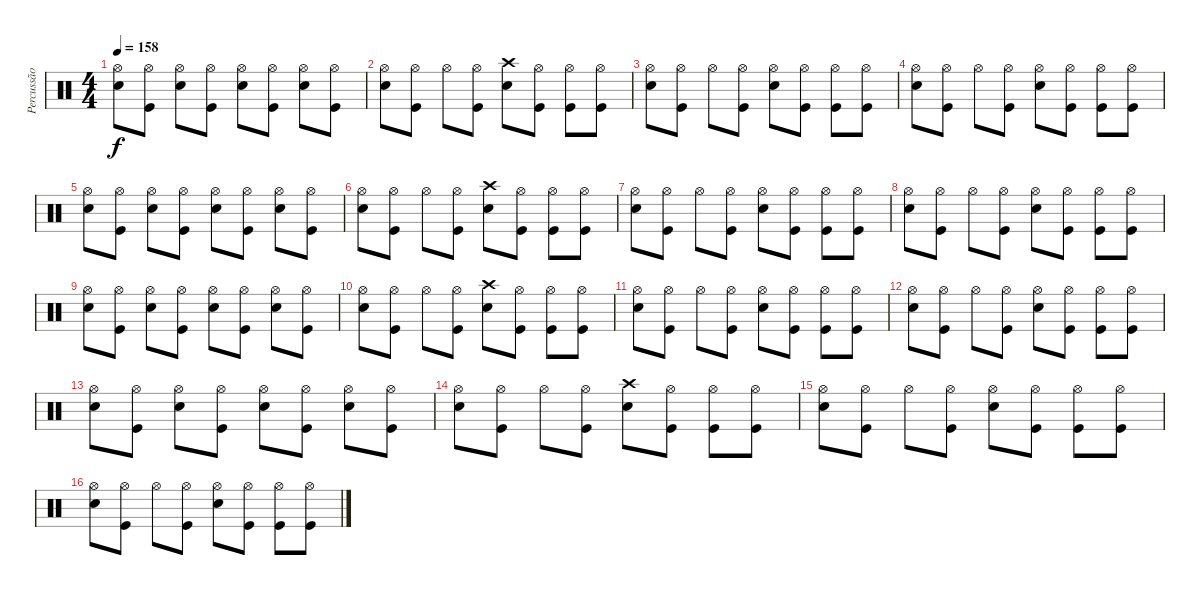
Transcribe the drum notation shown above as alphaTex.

\track ("Percussão" "Percussão") {instrument percussion}
\staff {score}
\articulation defaults
\ts (4 4)
\tempo 158
\clef neutral
\ks c
("Hi-Hat (open)" "Electric Snare (hit)").8{dy f} ("Hi-Hat (open)" "Kick (hit)").8 ("Hi-Hat (open)" "Electric Snare (hit)").8 ("Hi-Hat (open)" "Kick (hit)").8 ("Hi-Hat (open)" "Electric Snare (hit)").8 ("Hi-Hat (open)" "Kick (hit)").8 ("Hi-Hat (open)" "Electric Snare (hit)").8 ("Hi-Hat (open)" "Kick (hit)").8 |
("Hi-Hat (open)" "Electric Snare (hit)").8 ("Hi-Hat (open)" "Kick (hit)").8 "Hi-Hat (open)".8 ("Hi-Hat (open)" "Kick (hit)").8 ("Crash high (hit)" "Electric Snare (hit)").8 ("Hi-Hat (open)" "Kick (hit)").8 ("Hi-Hat (open)" "Kick (hit)").8 ("Hi-Hat (open)" "Kick (hit)").8 |
("Hi-Hat (open)" "Electric Snare (hit)").8 ("Hi-Hat (open)" "Kick (hit)").8 "Hi-Hat (open)".8 ("Hi-Hat (open)" "Kick (hit)").8 ("Hi-Hat (open)" "Electric Snare (hit)").8 ("Hi-Hat (open)" "Kick (hit)").8 ("Hi-Hat (open)" "Kick (hit)").8 ("Hi-Hat (open)" "Kick (hit)").8 |
("Hi-Hat (open)" "Electric Snare (hit)").8 ("Hi-Hat (open)" "Kick (hit)").8 "Hi-Hat (open)".8 ("Hi-Hat (open)" "Kick (hit)").8 ("Hi-Hat (open)" "Electric Snare (hit)").8 ("Hi-Hat (open)" "Kick (hit)").8 ("Hi-Hat (open)" "Kick (hit)").8 ("Hi-Hat (open)" "Kick (hit)").8 |
("Hi-Hat (open)" "Electric Snare (hit)").8 ("Hi-Hat (open)" "Kick (hit)").8 ("Hi-Hat (open)" "Electric Snare (hit)").8 ("Hi-Hat (open)" "Kick (hit)").8 ("Hi-Hat (open)" "Electric Snare (hit)").8 ("Hi-Hat (open)" "Kick (hit)").8 ("Hi-Hat (open)" "Electric Snare (hit)").8 ("Hi-Hat (open)" "Kick (hit)").8 |
("Hi-Hat (open)" "Electric Snare (hit)").8 ("Hi-Hat (open)" "Kick (hit)").8 "Hi-Hat (open)".8 ("Hi-Hat (open)" "Kick (hit)").8 ("Crash high (hit)" "Electric Snare (hit)").8 ("Hi-Hat (open)" "Kick (hit)").8 ("Hi-Hat (open)" "Kick (hit)").8 ("Hi-Hat (open)" "Kick (hit)").8 |
("Hi-Hat (open)" "Electric Snare (hit)").8 ("Hi-Hat (open)" "Kick (hit)").8 "Hi-Hat (open)".8 ("Hi-Hat (open)" "Kick (hit)").8 ("Hi-Hat (open)" "Electric Snare (hit)").8 ("Hi-Hat (open)" "Kick (hit)").8 ("Hi-Hat (open)" "Kick (hit)").8 ("Hi-Hat (open)" "Kick (hit)").8 |
("Hi-Hat (open)" "Electric Snare (hit)").8 ("Hi-Hat (open)" "Kick (hit)").8 "Hi-Hat (open)".8 ("Hi-Hat (open)" "Kick (hit)").8 ("Hi-Hat (open)" "Electric Snare (hit)").8 ("Hi-Hat (open)" "Kick (hit)").8 ("Hi-Hat (open)" "Kick (hit)").8 ("Hi-Hat (open)" "Kick (hit)").8 |
("Hi-Hat (open)" "Electric Snare (hit)").8 ("Hi-Hat (open)" "Kick (hit)").8 ("Hi-Hat (open)" "Electric Snare (hit)").8 ("Hi-Hat (open)" "Kick (hit)").8 ("Hi-Hat (open)" "Electric Snare (hit)").8 ("Hi-Hat (open)" "Kick (hit)").8 ("Hi-Hat (open)" "Electric Snare (hit)").8 ("Hi-Hat (open)" "Kick (hit)").8 |
("Hi-Hat (open)" "Electric Snare (hit)").8 ("Hi-Hat (open)" "Kick (hit)").8 "Hi-Hat (open)".8 ("Hi-Hat (open)" "Kick (hit)").8 ("Crash high (hit)" "Electric Snare (hit)").8 ("Hi-Hat (open)" "Kick (hit)").8 ("Hi-Hat (open)" "Kick (hit)").8 ("Hi-Hat (open)" "Kick (hit)").8 |
("Hi-Hat (open)" "Electric Snare (hit)").8 ("Hi-Hat (open)" "Kick (hit)").8 "Hi-Hat (open)".8 ("Hi-Hat (open)" "Kick (hit)").8 ("Hi-Hat (open)" "Electric Snare (hit)").8 ("Hi-Hat (open)" "Kick (hit)").8 ("Hi-Hat (open)" "Kick (hit)").8 ("Hi-Hat (open)" "Kick (hit)").8 |
("Hi-Hat (open)" "Electric Snare (hit)").8 ("Hi-Hat (open)" "Kick (hit)").8 "Hi-Hat (open)".8 ("Hi-Hat (open)" "Kick (hit)").8 ("Hi-Hat (open)" "Electric Snare (hit)").8 ("Hi-Hat (open)" "Kick (hit)").8 ("Hi-Hat (open)" "Kick (hit)").8 ("Hi-Hat (open)" "Kick (hit)").8 |
("Hi-Hat (open)" "Electric Snare (hit)").8 ("Hi-Hat (open)" "Kick (hit)").8 ("Hi-Hat (open)" "Electric Snare (hit)").8 ("Hi-Hat (open)" "Kick (hit)").8 ("Hi-Hat (open)" "Electric Snare (hit)").8 ("Hi-Hat (open)" "Kick (hit)").8 ("Hi-Hat (open)" "Electric Snare (hit)").8 ("Hi-Hat (open)" "Kick (hit)").8 |
("Hi-Hat (open)" "Electric Snare (hit)").8 ("Hi-Hat (open)" "Kick (hit)").8 "Hi-Hat (open)".8 ("Hi-Hat (open)" "Kick (hit)").8 ("Crash high (hit)" "Electric Snare (hit)").8 ("Hi-Hat (open)" "Kick (hit)").8 ("Hi-Hat (open)" "Kick (hit)").8 ("Hi-Hat (open)" "Kick (hit)").8 |
("Hi-Hat (open)" "Electric Snare (hit)").8 ("Hi-Hat (open)" "Kick (hit)").8 "Hi-Hat (open)".8 ("Hi-Hat (open)" "Kick (hit)").8 ("Hi-Hat (open)" "Electric Snare (hit)").8 ("Hi-Hat (open)" "Kick (hit)").8 ("Hi-Hat (open)" "Kick (hit)").8 ("Hi-Hat (open)" "Kick (hit)").8 |
("Hi-Hat (open)" "Electric Snare (hit)").8 ("Hi-Hat (open)" "Kick (hit)").8 "Hi-Hat (open)".8 ("Hi-Hat (open)" "Kick (hit)").8 ("Hi-Hat (open)" "Electric Snare (hit)").8 ("Hi-Hat (open)" "Kick (hit)").8 ("Hi-Hat (open)" "Kick (hit)").8 ("Hi-Hat (open)" "Kick (hit)").8
